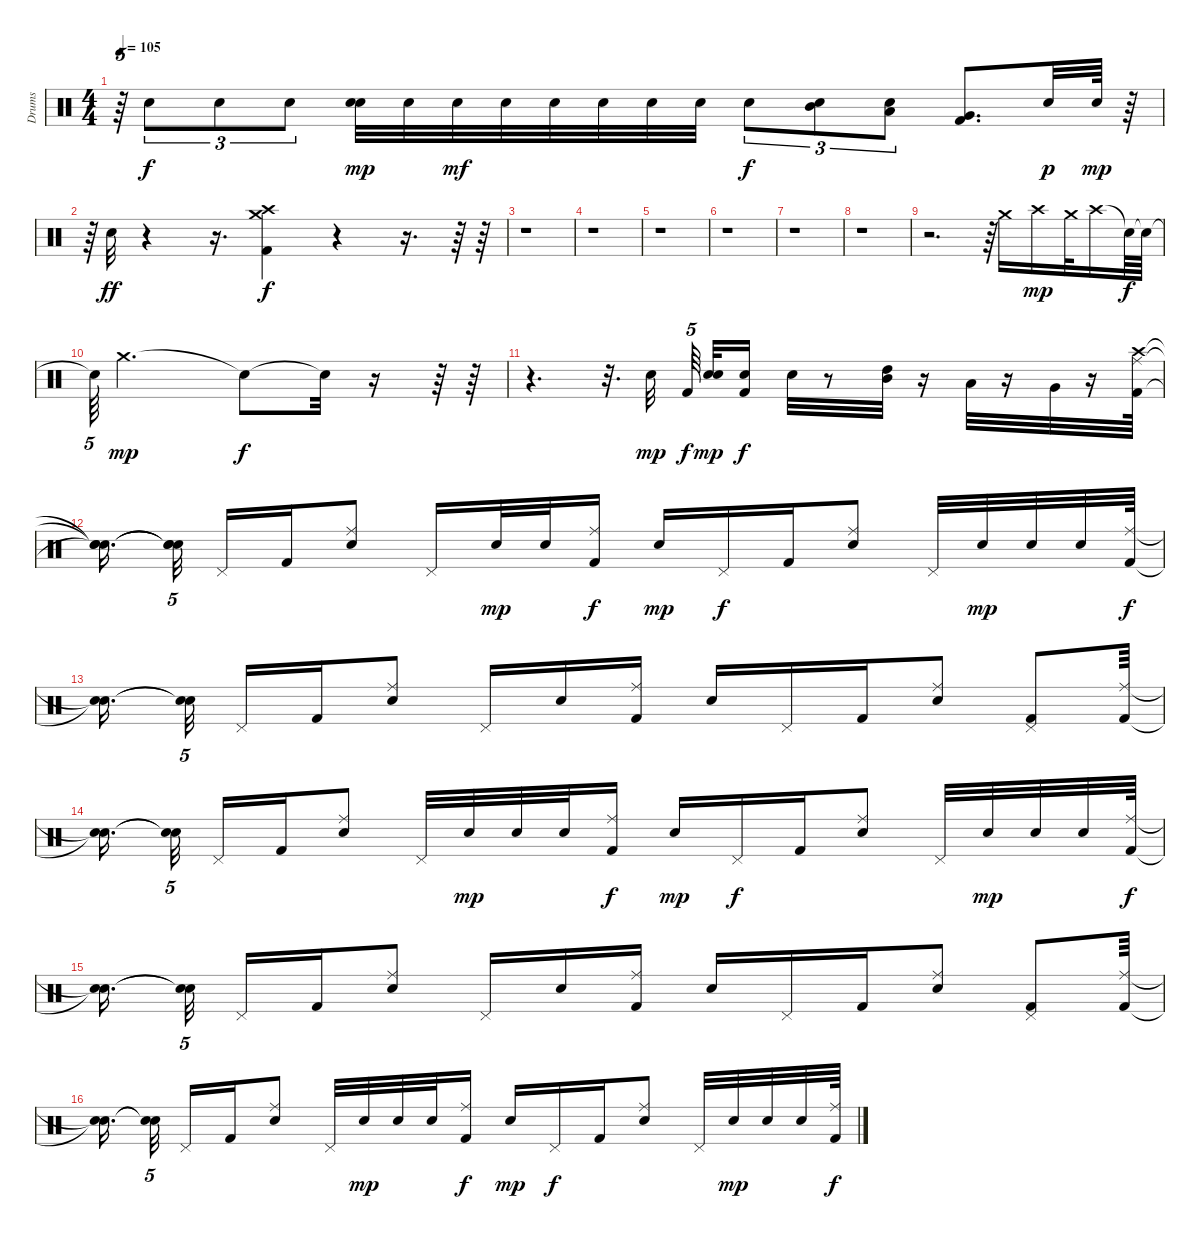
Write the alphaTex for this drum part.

\track ("Drums" "Drums") {instrument percussion}
\staff {score}
\articulation defaults
\ts (4 4)
\tempo 105
\clef neutral
\ks c
r.64{tu (5 4) dy f} "Electric Snare (hit)".8{tu (3 2)} "Electric Snare (hit)".8{tu (3 2)} "Electric Snare (hit)".8{tu (3 2)} ("Electric Snare (hit)" "Electric Snare (hit)").32{dy mp} "Electric Snare (hit)".32 "Electric Snare (hit)".32{dy mf} "Electric Snare (hit)".32 "Electric Snare (hit)".32 "Electric Snare (hit)".32 "Electric Snare (hit)".32 "Electric Snare (hit)".32 "Electric Snare (hit)".8{tu (3 2) dy f} ("Electric Snare (hit)" "Mid Tom (hit)").8{tu (3 2)} ("Electric Snare (hit)" "Low Tom (hit)").8{tu (3 2)} ("Very Low Tom (hit)" "Kick (hit) 2").8{d} "Electric Snare (hit)".32{dy p} "Electric Snare (hit)".64{dy mp} r.64 |
r.64{tu (5 4)} "Electric Snare (hit)".32{dy ff} r.4 r.16{d} ("Kick (hit) 2" "Crash high (hit)" "Crash medium (hit)").4{dy f} r.4 r.16{d} r.64 r.64 |
r.1 |
r.1 |
r.1 |
r.1 |
r.1 |
r.1 |
r.2{d} r.64{tu (5 4)} "Crash medium (hit)".16 "Crash high (hit)".16{dy mp} "Crash medium (hit)".32 "Crash high (hit)".16 "Snare (hit)"{t}.64{dy f} "Snare (hit)"{t}.64 |
"Snare (hit)"{t}.64{tu (5 4)} "Crash medium (hit)".2{d dy mp} "Snare (hit)"{t}.8{dy f} "Snare (hit)"{t}.32 r.16 r.64 r.64 |
r.4{d} r.32{d} "Electric Snare (hit)".32{dy mp} "Kick (hit) 2".64{tu (5 4) dy f} ("Electric Snare (hit)" "Electric Snare (hit)").32{dy mp} ("Kick (hit) 2" "Electric Snare (hit)").16{dy f} "Electric Snare (hit)".32 r.8 ("High Tom (hit)" "Mid Tom (hit)").32 r.16 "Low Tom (hit)".32 r.16 "Very Low Tom (hit)".32 r.16 ("Kick (hit) 2" "Ride (middle)" "Crash high (hit)").64 |
("Snare (hit)"{t} "Snare (hit)"{t} "Snare (hit)"{t}).16{d} ("Snare (hit)"{t} "Snare (hit)"{t} "Snare (hit)"{t}).32{tu (5 4)} "Pedal Hi-Hat (hit)".16 "Kick (hit) 2".16 ("Electric Snare (hit)" "Ride (middle)").8 "Pedal Hi-Hat (hit)".16 "Electric Snare (hit)".32{dy mp} "Electric Snare (hit)".32 ("Kick (hit) 2" "Ride (middle)").16{dy f} "Electric Snare (hit)".16{dy mp} "Pedal Hi-Hat (hit)".16{dy f} "Kick (hit) 2".16 ("Electric Snare (hit)" "Ride (middle)").8 "Pedal Hi-Hat (hit)".32 "Electric Snare (hit)".32{dy mp} "Electric Snare (hit)".32 "Electric Snare (hit)".32 ("Kick (hit) 2" "Ride (middle)").64{dy f} |
("Snare (hit)"{t} "Snare (hit)"{t}).16{d} ("Snare (hit)"{t} "Snare (hit)"{t}).32{tu (5 4)} "Pedal Hi-Hat (hit)".16 "Kick (hit) 2".16 ("Electric Snare (hit)" "Ride (middle)").8 "Pedal Hi-Hat (hit)".16 "Electric Snare (hit)".16 ("Kick (hit) 2" "Ride (middle)").16 "Electric Snare (hit)".16 "Pedal Hi-Hat (hit)".16 "Kick (hit) 2".16 ("Electric Snare (hit)" "Ride (middle)").8 ("Kick (hit) 2" "Pedal Hi-Hat (hit)").8 ("Kick (hit) 2" "Ride (middle)").64 |
("Snare (hit)"{t} "Snare (hit)"{t}).16{d} ("Snare (hit)"{t} "Snare (hit)"{t}).32{tu (5 4)} "Pedal Hi-Hat (hit)".16 "Kick (hit) 2".16 ("Electric Snare (hit)" "Ride (middle)").8 "Pedal Hi-Hat (hit)".32 "Electric Snare (hit)".32{dy mp} "Electric Snare (hit)".32 "Electric Snare (hit)".32 ("Kick (hit) 2" "Ride (middle)").16{dy f} "Electric Snare (hit)".16{dy mp} "Pedal Hi-Hat (hit)".16{dy f} "Kick (hit) 2".16 ("Electric Snare (hit)" "Ride (middle)").8 "Pedal Hi-Hat (hit)".32 "Electric Snare (hit)".32{dy mp} "Electric Snare (hit)".32 "Electric Snare (hit)".32 ("Kick (hit) 2" "Ride (middle)").64{dy f} |
("Snare (hit)"{t} "Snare (hit)"{t}).16{d} ("Snare (hit)"{t} "Snare (hit)"{t}).32{tu (5 4)} "Pedal Hi-Hat (hit)".16 "Kick (hit) 2".16 ("Electric Snare (hit)" "Ride (middle)").8 "Pedal Hi-Hat (hit)".16 "Electric Snare (hit)".16 ("Kick (hit) 2" "Ride (middle)").16 "Electric Snare (hit)".16 "Pedal Hi-Hat (hit)".16 "Kick (hit) 2".16 ("Electric Snare (hit)" "Ride (middle)").8 ("Kick (hit) 2" "Pedal Hi-Hat (hit)").8 ("Kick (hit) 2" "Ride (middle)").64 |
("Snare (hit)"{t} "Snare (hit)"{t}).16{d} ("Snare (hit)"{t} "Snare (hit)"{t}).32{tu (5 4)} "Pedal Hi-Hat (hit)".16 "Kick (hit) 2".16 ("Electric Snare (hit)" "Ride (middle)").8 "Pedal Hi-Hat (hit)".32 "Electric Snare (hit)".32{dy mp} "Electric Snare (hit)".32 "Electric Snare (hit)".32 ("Kick (hit) 2" "Ride (middle)").16{dy f} "Electric Snare (hit)".16{dy mp} "Pedal Hi-Hat (hit)".16{dy f} "Kick (hit) 2".16 ("Electric Snare (hit)" "Ride (middle)").8 "Pedal Hi-Hat (hit)".32 "Electric Snare (hit)".32{dy mp} "Electric Snare (hit)".32 "Electric Snare (hit)".32 ("Kick (hit) 2" "Ride (middle)").64{dy f}
